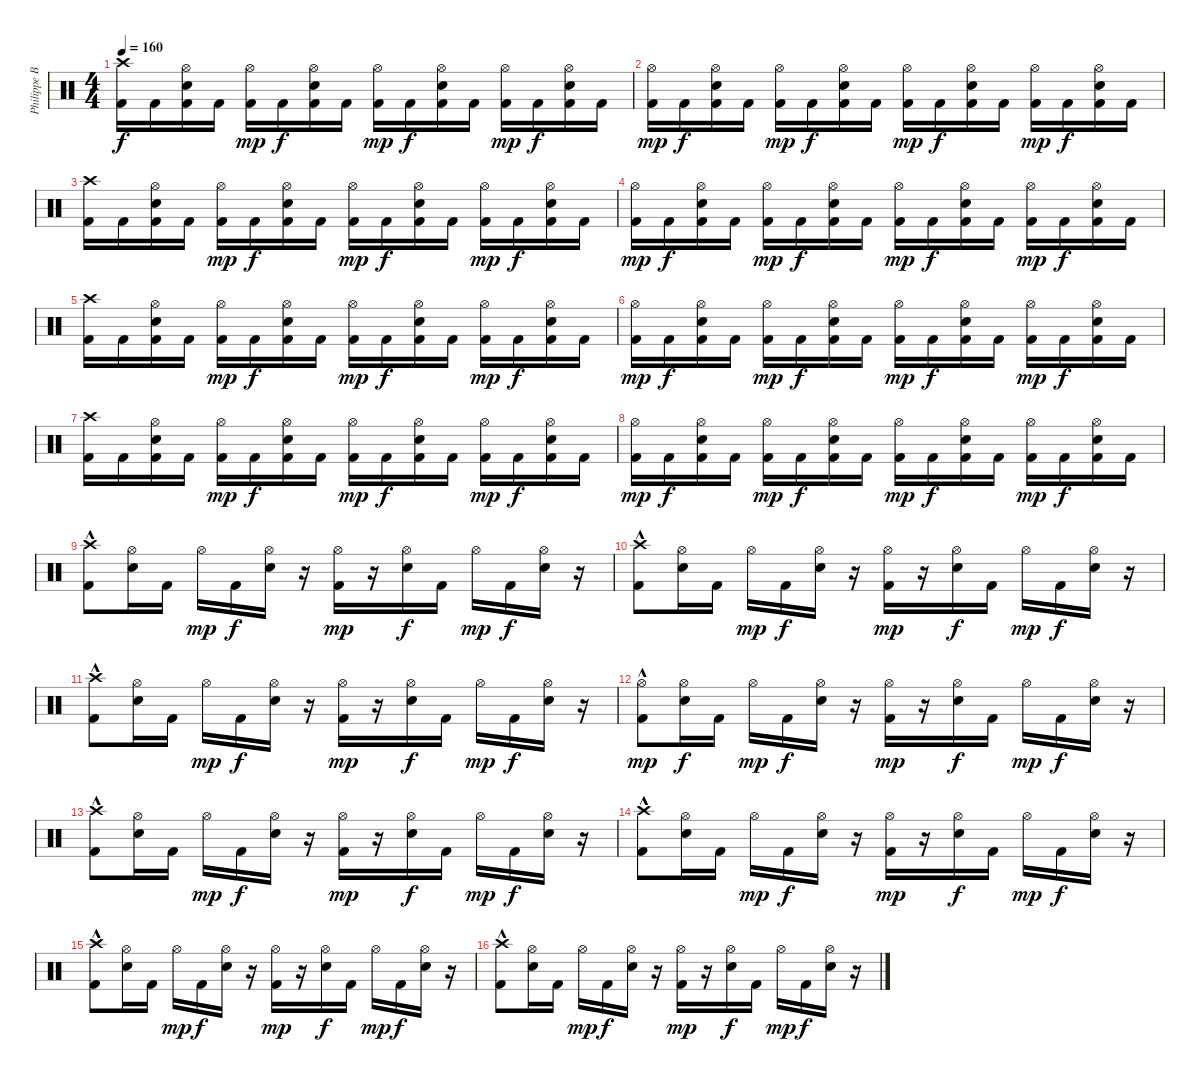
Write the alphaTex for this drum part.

\track ("Philippe Borda" "Philippe B") {instrument percussion}
\staff {score}
\articulation defaults
\ts (4 4)
\tempo 160
\clef neutral
\ks c
("Kick (hit) 2" "Crash high (hit)").16{dy f} "Kick (hit) 2".16 ("Kick (hit) 2" "Snare (hit) 2" "Hi-Hat (open)").16 "Kick (hit) 2".16 ("Kick (hit) 2" "Hi-Hat (open)").16{dy mp} "Kick (hit) 2".16{dy f} ("Kick (hit) 2" "Snare (hit) 2" "Hi-Hat (open)").16 "Kick (hit) 2".16 ("Kick (hit) 2" "Hi-Hat (open)").16{dy mp} "Kick (hit) 2".16{dy f} ("Kick (hit) 2" "Snare (hit) 2" "Hi-Hat (open)").16 "Kick (hit) 2".16 ("Kick (hit) 2" "Hi-Hat (open)").16{dy mp} "Kick (hit) 2".16{dy f} ("Kick (hit) 2" "Snare (hit) 2" "Hi-Hat (open)").16 "Kick (hit) 2".16 |
("Kick (hit) 2" "Hi-Hat (open)").16{dy mp} "Kick (hit) 2".16{dy f} ("Kick (hit) 2" "Snare (hit) 2" "Hi-Hat (open)").16 "Kick (hit) 2".16 ("Kick (hit) 2" "Hi-Hat (open)").16{dy mp} "Kick (hit) 2".16{dy f} ("Kick (hit) 2" "Snare (hit) 2" "Hi-Hat (open)").16 "Kick (hit) 2".16 ("Kick (hit) 2" "Hi-Hat (open)").16{dy mp} "Kick (hit) 2".16{dy f} ("Kick (hit) 2" "Snare (hit) 2" "Hi-Hat (open)").16 "Kick (hit) 2".16 ("Kick (hit) 2" "Hi-Hat (open)").16{dy mp} "Kick (hit) 2".16{dy f} ("Kick (hit) 2" "Snare (hit) 2" "Hi-Hat (open)").16 "Kick (hit) 2".16 |
("Kick (hit) 2" "Crash high (hit)").16 "Kick (hit) 2".16 ("Kick (hit) 2" "Snare (hit) 2" "Hi-Hat (open)").16 "Kick (hit) 2".16 ("Kick (hit) 2" "Hi-Hat (open)").16{dy mp} "Kick (hit) 2".16{dy f} ("Kick (hit) 2" "Snare (hit) 2" "Hi-Hat (open)").16 "Kick (hit) 2".16 ("Kick (hit) 2" "Hi-Hat (open)").16{dy mp} "Kick (hit) 2".16{dy f} ("Kick (hit) 2" "Snare (hit) 2" "Hi-Hat (open)").16 "Kick (hit) 2".16 ("Kick (hit) 2" "Hi-Hat (open)").16{dy mp} "Kick (hit) 2".16{dy f} ("Kick (hit) 2" "Snare (hit) 2" "Hi-Hat (open)").16 "Kick (hit) 2".16 |
("Kick (hit) 2" "Hi-Hat (open)").16{dy mp} "Kick (hit) 2".16{dy f} ("Kick (hit) 2" "Snare (hit) 2" "Hi-Hat (open)").16 "Kick (hit) 2".16 ("Kick (hit) 2" "Hi-Hat (open)").16{dy mp} "Kick (hit) 2".16{dy f} ("Kick (hit) 2" "Snare (hit) 2" "Hi-Hat (open)").16 "Kick (hit) 2".16 ("Kick (hit) 2" "Hi-Hat (open)").16{dy mp} "Kick (hit) 2".16{dy f} ("Kick (hit) 2" "Snare (hit) 2" "Hi-Hat (open)").16 "Kick (hit) 2".16 ("Kick (hit) 2" "Hi-Hat (open)").16{dy mp} "Kick (hit) 2".16{dy f} ("Kick (hit) 2" "Snare (hit) 2" "Hi-Hat (open)").16 "Kick (hit) 2".16 |
("Kick (hit) 2" "Crash high (hit)").16 "Kick (hit) 2".16 ("Kick (hit) 2" "Snare (hit) 2" "Hi-Hat (open)").16 "Kick (hit) 2".16 ("Kick (hit) 2" "Hi-Hat (open)").16{dy mp} "Kick (hit) 2".16{dy f} ("Kick (hit) 2" "Snare (hit) 2" "Hi-Hat (open)").16 "Kick (hit) 2".16 ("Kick (hit) 2" "Hi-Hat (open)").16{dy mp} "Kick (hit) 2".16{dy f} ("Kick (hit) 2" "Snare (hit) 2" "Hi-Hat (open)").16 "Kick (hit) 2".16 ("Kick (hit) 2" "Hi-Hat (open)").16{dy mp} "Kick (hit) 2".16{dy f} ("Kick (hit) 2" "Snare (hit) 2" "Hi-Hat (open)").16 "Kick (hit) 2".16 |
("Kick (hit) 2" "Hi-Hat (open)").16{dy mp} "Kick (hit) 2".16{dy f} ("Kick (hit) 2" "Snare (hit) 2" "Hi-Hat (open)").16 "Kick (hit) 2".16 ("Kick (hit) 2" "Hi-Hat (open)").16{dy mp} "Kick (hit) 2".16{dy f} ("Kick (hit) 2" "Snare (hit) 2" "Hi-Hat (open)").16 "Kick (hit) 2".16 ("Kick (hit) 2" "Hi-Hat (open)").16{dy mp} "Kick (hit) 2".16{dy f} ("Kick (hit) 2" "Snare (hit) 2" "Hi-Hat (open)").16 "Kick (hit) 2".16 ("Kick (hit) 2" "Hi-Hat (open)").16{dy mp} "Kick (hit) 2".16{dy f} ("Kick (hit) 2" "Snare (hit) 2" "Hi-Hat (open)").16 "Kick (hit) 2".16 |
("Kick (hit) 2" "Crash high (hit)").16 "Kick (hit) 2".16 ("Kick (hit) 2" "Snare (hit) 2" "Hi-Hat (open)").16 "Kick (hit) 2".16 ("Kick (hit) 2" "Hi-Hat (open)").16{dy mp} "Kick (hit) 2".16{dy f} ("Kick (hit) 2" "Snare (hit) 2" "Hi-Hat (open)").16 "Kick (hit) 2".16 ("Kick (hit) 2" "Hi-Hat (open)").16{dy mp} "Kick (hit) 2".16{dy f} ("Kick (hit) 2" "Snare (hit) 2" "Hi-Hat (open)").16 "Kick (hit) 2".16 ("Kick (hit) 2" "Hi-Hat (open)").16{dy mp} "Kick (hit) 2".16{dy f} ("Kick (hit) 2" "Snare (hit) 2" "Hi-Hat (open)").16 "Kick (hit) 2".16 |
("Kick (hit) 2" "Hi-Hat (open)").16{dy mp} "Kick (hit) 2".16{dy f} ("Kick (hit) 2" "Snare (hit) 2" "Hi-Hat (open)").16 "Kick (hit) 2".16 ("Kick (hit) 2" "Hi-Hat (open)").16{dy mp} "Kick (hit) 2".16{dy f} ("Kick (hit) 2" "Snare (hit) 2" "Hi-Hat (open)").16 "Kick (hit) 2".16 ("Kick (hit) 2" "Hi-Hat (open)").16{dy mp} "Kick (hit) 2".16{dy f} ("Kick (hit) 2" "Snare (hit) 2" "Hi-Hat (open)").16 "Kick (hit) 2".16 ("Kick (hit) 2" "Hi-Hat (open)").16{dy mp} "Kick (hit) 2".16{dy f} ("Kick (hit) 2" "Snare (hit) 2" "Hi-Hat (open)").16 "Kick (hit) 2".16 |
("Kick (hit) 2"{hac} "Crash high (hit)").8 ("Snare (hit) 2" "Hi-Hat (open)").16 "Kick (hit) 2".16 "Hi-Hat (open)".16{dy mp} "Kick (hit) 2".16{dy f} ("Snare (hit) 2" "Hi-Hat (open)").16 r.16 ("Kick (hit) 2" "Hi-Hat (open)").16{dy mp} r.16 ("Snare (hit) 2" "Hi-Hat (open)").16{dy f} "Kick (hit) 2".16 "Hi-Hat (open)".16{dy mp} "Kick (hit) 2".16{dy f} ("Snare (hit) 2" "Hi-Hat (open)").16 r.16 |
("Kick (hit) 2"{hac} "Crash high (hit)").8 ("Snare (hit) 2" "Hi-Hat (open)").16 "Kick (hit) 2".16 "Hi-Hat (open)".16{dy mp} "Kick (hit) 2".16{dy f} ("Snare (hit) 2" "Hi-Hat (open)").16 r.16 ("Kick (hit) 2" "Hi-Hat (open)").16{dy mp} r.16 ("Snare (hit) 2" "Hi-Hat (open)").16{dy f} "Kick (hit) 2".16 "Hi-Hat (open)".16{dy mp} "Kick (hit) 2".16{dy f} ("Snare (hit) 2" "Hi-Hat (open)").16 r.16 |
("Kick (hit) 2"{hac} "Crash high (hit)").8 ("Snare (hit) 2" "Hi-Hat (open)").16 "Kick (hit) 2".16 "Hi-Hat (open)".16{dy mp} "Kick (hit) 2".16{dy f} ("Snare (hit) 2" "Hi-Hat (open)").16 r.16 ("Kick (hit) 2" "Hi-Hat (open)").16{dy mp} r.16 ("Snare (hit) 2" "Hi-Hat (open)").16{dy f} "Kick (hit) 2".16 "Hi-Hat (open)".16{dy mp} "Kick (hit) 2".16{dy f} ("Snare (hit) 2" "Hi-Hat (open)").16 r.16 |
("Kick (hit) 2"{hac} "Hi-Hat (open)").8{dy mp} ("Snare (hit) 2" "Hi-Hat (open)").16{dy f} "Kick (hit) 2".16 "Hi-Hat (open)".16{dy mp} "Kick (hit) 2".16{dy f} ("Snare (hit) 2" "Hi-Hat (open)").16 r.16 ("Kick (hit) 2" "Hi-Hat (open)").16{dy mp} r.16 ("Snare (hit) 2" "Hi-Hat (open)").16{dy f} "Kick (hit) 2".16 "Hi-Hat (open)".16{dy mp} "Kick (hit) 2".16{dy f} ("Snare (hit) 2" "Hi-Hat (open)").16 r.16 |
("Kick (hit) 2"{hac} "Crash high (hit)").8 ("Snare (hit) 2" "Hi-Hat (open)").16 "Kick (hit) 2".16 "Hi-Hat (open)".16{dy mp} "Kick (hit) 2".16{dy f} ("Snare (hit) 2" "Hi-Hat (open)").16 r.16 ("Kick (hit) 2" "Hi-Hat (open)").16{dy mp} r.16 ("Snare (hit) 2" "Hi-Hat (open)").16{dy f} "Kick (hit) 2".16 "Hi-Hat (open)".16{dy mp} "Kick (hit) 2".16{dy f} ("Snare (hit) 2" "Hi-Hat (open)").16 r.16 |
("Kick (hit) 2"{hac} "Crash high (hit)").8 ("Snare (hit) 2" "Hi-Hat (open)").16 "Kick (hit) 2".16 "Hi-Hat (open)".16{dy mp} "Kick (hit) 2".16{dy f} ("Snare (hit) 2" "Hi-Hat (open)").16 r.16 ("Kick (hit) 2" "Hi-Hat (open)").16{dy mp} r.16 ("Snare (hit) 2" "Hi-Hat (open)").16{dy f} "Kick (hit) 2".16 "Hi-Hat (open)".16{dy mp} "Kick (hit) 2".16{dy f} ("Snare (hit) 2" "Hi-Hat (open)").16 r.16 |
("Kick (hit) 2"{hac} "Crash high (hit)").8 ("Snare (hit) 2" "Hi-Hat (open)").16 "Kick (hit) 2".16 "Hi-Hat (open)".16{dy mp} "Kick (hit) 2".16{dy f} ("Snare (hit) 2" "Hi-Hat (open)").16 r.16 ("Kick (hit) 2" "Hi-Hat (open)").16{dy mp} r.16 ("Snare (hit) 2" "Hi-Hat (open)").16{dy f} "Kick (hit) 2".16 "Hi-Hat (open)".16{dy mp} "Kick (hit) 2".16{dy f} ("Snare (hit) 2" "Hi-Hat (open)").16 r.16 |
("Kick (hit) 2"{hac} "Crash high (hit)").8 ("Snare (hit) 2" "Hi-Hat (open)").16 "Kick (hit) 2".16 "Hi-Hat (open)".16{dy mp} "Kick (hit) 2".16{dy f} ("Snare (hit) 2" "Hi-Hat (open)").16 r.16 ("Kick (hit) 2" "Hi-Hat (open)").16{dy mp} r.16 ("Snare (hit) 2" "Hi-Hat (open)").16{dy f} "Kick (hit) 2".16 "Hi-Hat (open)".16{dy mp} "Kick (hit) 2".16{dy f} ("Snare (hit) 2" "Hi-Hat (open)").16 r.16
